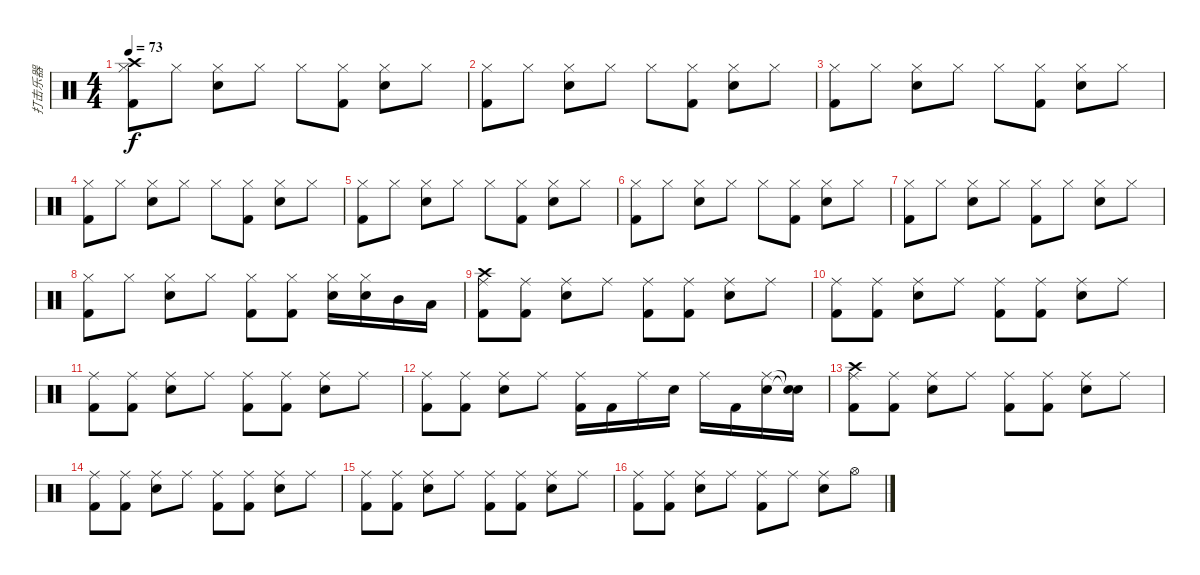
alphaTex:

\track ("打击乐器" "打击乐器") {instrument percussion}
\staff {score}
\articulation defaults
\ts (4 4)
\tempo 73
\clef neutral
\ks c
("Crash high (hit)" "Hi-Hat (closed)" "Kick (hit) 2").8{dy f} "Hi-Hat (closed)".8 ("Hi-Hat (closed)" "Electric Snare (hit)").8 "Hi-Hat (closed)".8 "Hi-Hat (closed)".8 ("Hi-Hat (closed)" "Kick (hit) 2").8 ("Hi-Hat (closed)" "Electric Snare (hit)").8 "Hi-Hat (closed)".8 |
("Hi-Hat (closed)" "Kick (hit) 2").8 "Hi-Hat (closed)".8 ("Hi-Hat (closed)" "Electric Snare (hit)").8 "Hi-Hat (closed)".8 "Hi-Hat (closed)".8 ("Hi-Hat (closed)" "Kick (hit) 2").8 ("Hi-Hat (closed)" "Electric Snare (hit)").8 "Hi-Hat (closed)".8 |
("Hi-Hat (closed)" "Kick (hit) 2").8 "Hi-Hat (closed)".8 ("Hi-Hat (closed)" "Electric Snare (hit)").8 "Hi-Hat (closed)".8 "Hi-Hat (closed)".8 ("Hi-Hat (closed)" "Kick (hit) 2").8 ("Hi-Hat (closed)" "Electric Snare (hit)").8 "Hi-Hat (closed)".8 |
("Hi-Hat (closed)" "Kick (hit) 2").8 "Hi-Hat (closed)".8 ("Hi-Hat (closed)" "Electric Snare (hit)").8 "Hi-Hat (closed)".8 "Hi-Hat (closed)".8 ("Hi-Hat (closed)" "Kick (hit) 2").8 ("Hi-Hat (closed)" "Electric Snare (hit)").8 "Hi-Hat (closed)".8 |
("Hi-Hat (closed)" "Kick (hit) 2").8 "Hi-Hat (closed)".8 ("Hi-Hat (closed)" "Electric Snare (hit)").8 "Hi-Hat (closed)".8 "Hi-Hat (closed)".8 ("Hi-Hat (closed)" "Kick (hit) 2").8 ("Hi-Hat (closed)" "Electric Snare (hit)").8 "Hi-Hat (closed)".8 |
("Hi-Hat (closed)" "Kick (hit) 2").8 "Hi-Hat (closed)".8 ("Hi-Hat (closed)" "Electric Snare (hit)").8 "Hi-Hat (closed)".8 "Hi-Hat (closed)".8 ("Hi-Hat (closed)" "Kick (hit) 2").8 ("Hi-Hat (closed)" "Electric Snare (hit)").8 "Hi-Hat (closed)".8 |
("Hi-Hat (closed)" "Kick (hit) 2").8 "Hi-Hat (closed)".8 ("Hi-Hat (closed)" "Electric Snare (hit)").8 "Hi-Hat (closed)".8 ("Hi-Hat (closed)" "Kick (hit) 2").8 "Hi-Hat (closed)".8 ("Hi-Hat (closed)" "Electric Snare (hit)").8 "Hi-Hat (closed)".8 |
("Hi-Hat (closed)" "Kick (hit) 2").8 "Hi-Hat (closed)".8 ("Hi-Hat (closed)" "Electric Snare (hit)").8 "Hi-Hat (closed)".8 ("Hi-Hat (closed)" "Kick (hit) 2").8 ("Hi-Hat (closed)" "Kick (hit) 2").8 ("Hi-Hat (closed)" "Electric Snare (hit)").16 ("Hi-Hat (closed)" "Electric Snare (hit)").16 "Mid Tom (hit)".16 "Low Tom (hit)".16 |
("Crash high (hit)" "Ride (middle)" "Kick (hit) 2").8 ("Ride (middle)" "Kick (hit) 2").8 ("Ride (middle)" "Electric Snare (hit)").8 "Ride (middle)".8 ("Ride (middle)" "Kick (hit) 2").8 ("Ride (middle)" "Kick (hit) 2").8 ("Ride (middle)" "Electric Snare (hit)").8 "Ride (middle)".8 |
("Ride (middle)" "Kick (hit) 2").8 ("Ride (middle)" "Kick (hit) 2").8 ("Ride (middle)" "Electric Snare (hit)").8 "Ride (middle)".8 ("Ride (middle)" "Kick (hit) 2").8 ("Ride (middle)" "Kick (hit) 2").8 ("Ride (middle)" "Electric Snare (hit)").8 "Ride (middle)".8 |
("Ride (middle)" "Kick (hit) 2").8 ("Ride (middle)" "Kick (hit) 2").8 ("Ride (middle)" "Electric Snare (hit)").8 "Ride (middle)".8 ("Ride (middle)" "Kick (hit) 2").8 ("Ride (middle)" "Kick (hit) 2").8 ("Ride (middle)" "Electric Snare (hit)").8 "Ride (middle)".8 |
("Ride (middle)" "Kick (hit) 2").8 ("Ride (middle)" "Kick (hit) 2").8 ("Ride (middle)" "Electric Snare (hit)").8 "Ride (middle)".8 ("Ride (middle)" "Kick (hit) 2").16 "Kick (hit) 2".16 "Ride (middle)".16 "Electric Snare (hit)".16 "Ride (middle)".16 "Kick (hit) 2".16 ("Electric Snare (hit)" "Ride (middle)").16 ("Snare (hit)"{t} "Snare (hit)"{t}).16 |
("Crash high (hit)" "Ride (middle)" "Kick (hit) 2").8 ("Ride (middle)" "Kick (hit) 2").8 ("Ride (middle)" "Electric Snare (hit)").8 "Ride (middle)".8 ("Ride (middle)" "Kick (hit) 2").8 ("Ride (middle)" "Kick (hit) 2").8 ("Ride (middle)" "Electric Snare (hit)").8 "Ride (middle)".8 |
("Ride (middle)" "Kick (hit) 2").8 ("Ride (middle)" "Kick (hit) 2").8 ("Ride (middle)" "Electric Snare (hit)").8 "Ride (middle)".8 ("Ride (middle)" "Kick (hit) 2").8 ("Ride (middle)" "Kick (hit) 2").8 ("Ride (middle)" "Electric Snare (hit)").8 "Ride (middle)".8 |
("Ride (middle)" "Kick (hit) 2").8 ("Ride (middle)" "Kick (hit) 2").8 ("Ride (middle)" "Electric Snare (hit)").8 "Ride (middle)".8 ("Ride (middle)" "Kick (hit) 2").8 ("Ride (middle)" "Kick (hit) 2").8 ("Ride (middle)" "Electric Snare (hit)").8 "Ride (middle)".8 |
("Ride (middle)" "Kick (hit) 2").8 ("Ride (middle)" "Kick (hit) 2").8 ("Ride (middle)" "Electric Snare (hit)").8 "Ride (middle)".8 ("Ride (middle)" "Kick (hit) 2").8 "Ride (middle)".8 ("Ride (middle)" "Electric Snare (hit)").8 "Hi-Hat (open)".8
